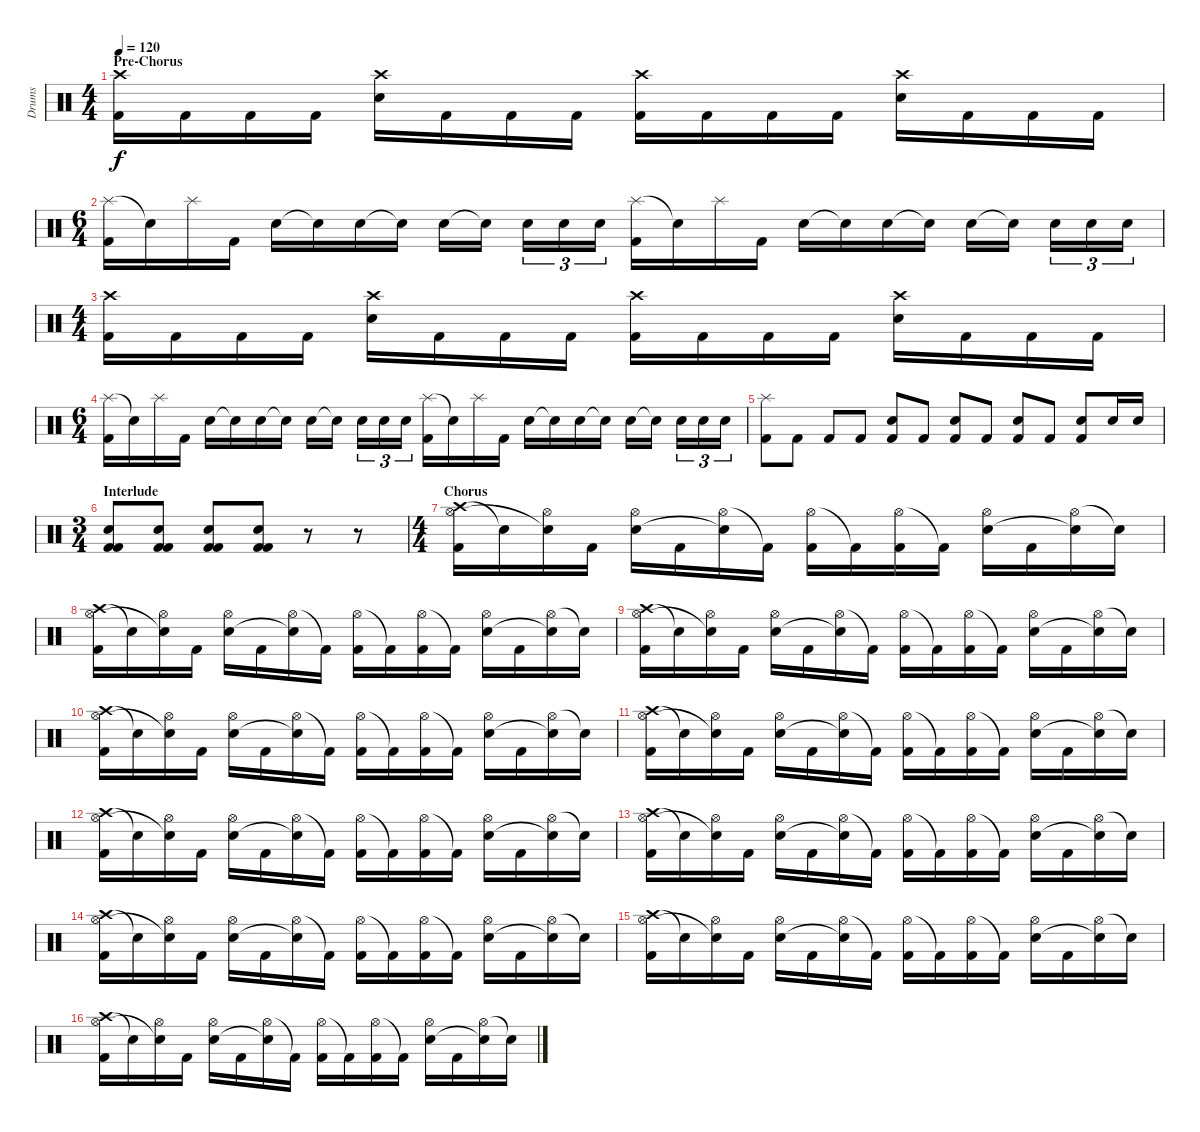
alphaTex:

\track ("Drums" "Drums") {instrument percussion}
\staff {score}
\articulation defaults
\ts (4 4)
\section ("" "Pre-Chorus")
\tempo 120
\clef neutral
\ks c
("Crash high (hit)" "Kick (hit) 2").16{dy f} "Kick (hit) 2".16 "Kick (hit) 2".16 "Kick (hit) 2".16 ("Crash high (hit)" "Electric Snare (hit)").16 "Kick (hit) 2".16 "Kick (hit) 2".16 "Kick (hit) 2".16 ("Crash high (hit)" "Kick (hit) 2").16 "Kick (hit) 2".16 "Kick (hit) 2".16 "Kick (hit) 2".16 ("Crash high (hit)" "Electric Snare (hit)").16 "Kick (hit) 2".16 "Kick (hit) 2".16 "Kick (hit) 2".16 |
\ts (6 4)
("Splash (hit)" "Kick (hit) 2").16 "Snare (hit)"{t}.16 "Splash (hit)".16 "Kick (hit) 2".16 "Electric Snare (hit)".16 "Snare (hit)"{t}.16 "Electric Snare (hit)".16 "Snare (hit)"{t}.16 "Electric Snare (hit)".16 "Snare (hit)"{t}.16 "Electric Snare (hit)".16{tu (3 2)} "Electric Snare (hit)".16{tu (3 2)} "Electric Snare (hit)".16{tu (3 2)} ("Splash (hit)" "Kick (hit) 2").16 "Snare (hit)"{t}.16 "Splash (hit)".16 "Kick (hit) 2".16 "Electric Snare (hit)".16 "Snare (hit)"{t}.16 "Electric Snare (hit)".16 "Snare (hit)"{t}.16 "Electric Snare (hit)".16 "Snare (hit)"{t}.16 "Electric Snare (hit)".16{tu (3 2)} "Electric Snare (hit)".16{tu (3 2)} "Electric Snare (hit)".16{tu (3 2)} |
\ts (4 4)
("Crash high (hit)" "Kick (hit) 2").16 "Kick (hit) 2".16 "Kick (hit) 2".16 "Kick (hit) 2".16 ("Crash high (hit)" "Electric Snare (hit)").16 "Kick (hit) 2".16 "Kick (hit) 2".16 "Kick (hit) 2".16 ("Crash high (hit)" "Kick (hit) 2").16 "Kick (hit) 2".16 "Kick (hit) 2".16 "Kick (hit) 2".16 ("Crash high (hit)" "Electric Snare (hit)").16 "Kick (hit) 2".16 "Kick (hit) 2".16 "Kick (hit) 2".16 |
\ts (6 4)
("Splash (hit)" "Kick (hit) 2").16 "Snare (hit)"{t}.16 "Splash (hit)".16 "Kick (hit) 2".16 "Electric Snare (hit)".16 "Snare (hit)"{t}.16 "Electric Snare (hit)".16 "Snare (hit)"{t}.16 "Electric Snare (hit)".16 "Snare (hit)"{t}.16 "Electric Snare (hit)".16{tu (3 2)} "Electric Snare (hit)".16{tu (3 2)} "Electric Snare (hit)".16{tu (3 2)} ("Splash (hit)" "Kick (hit) 2").16 "Snare (hit)"{t}.16 "Splash (hit)".16 "Kick (hit) 2".16 "Electric Snare (hit)".16 "Snare (hit)"{t}.16 "Electric Snare (hit)".16 "Snare (hit)"{t}.16 "Electric Snare (hit)".16 "Snare (hit)"{t}.16 "Electric Snare (hit)".16{tu (3 2)} "Electric Snare (hit)".16{tu (3 2)} "Electric Snare (hit)".16{tu (3 2)} |
("Splash (hit)" "Kick (hit) 2").8 "Kick (hit) 2".8 "Kick (hit) 2".8 "Kick (hit) 2".8 ("Electric Snare (hit)" "Kick (hit) 2").8 "Kick (hit) 2".8 ("Electric Snare (hit)" "Kick (hit) 2").8 "Kick (hit) 2".8 ("Electric Snare (hit)" "Kick (hit) 2").8 "Kick (hit) 2".8 ("Electric Snare (hit)" "Kick (hit) 2").8 "Electric Snare (hit)".16 "Electric Snare (hit)".16 |
\ts (3 4)
\section ("" "Interlude")
("Electric Snare (hit)" "Kick (hit) 2" "Kick (hit) 2").8 ("Electric Snare (hit)" "Kick (hit) 2" "Kick (hit) 2").8 ("Electric Snare (hit)" "Kick (hit) 2" "Kick (hit) 2").8 ("Electric Snare (hit)" "Kick (hit) 2" "Kick (hit) 2").8 r.8 r.8 |
\ts (4 4)
\section ("" "Chorus")
("Crash high (hit)" "Hi-Hat (open)" "Kick (hit) 2").16 "Snare (hit)"{t}.16 ("Hi-Hat (open)" "Snare (hit)"{t}).16 "Kick (hit) 2".16 ("Hi-Hat (open)" "Electric Snare (hit)").16 "Kick (hit) 2".16 ("Hi-Hat (open)" "Snare (hit)"{t}).16 "Kick (hit) 2"{t}.16 ("Hi-Hat (open)" "Kick (hit) 2").16 "Kick (hit) 2"{t}.16 ("Hi-Hat (open)" "Kick (hit) 2").16 "Kick (hit) 2"{t}.16 ("Hi-Hat (open)" "Electric Snare (hit)").16 "Kick (hit) 2".16 ("Hi-Hat (open)" "Snare (hit)"{t}).16 "Snare (hit)"{t}.16 |
("Crash high (hit)" "Hi-Hat (open)" "Kick (hit) 2").16 "Snare (hit)"{t}.16 ("Hi-Hat (open)" "Snare (hit)"{t}).16 "Kick (hit) 2".16 ("Hi-Hat (open)" "Electric Snare (hit)").16 "Kick (hit) 2".16 ("Hi-Hat (open)" "Snare (hit)"{t}).16 "Kick (hit) 2"{t}.16 ("Hi-Hat (open)" "Kick (hit) 2").16 "Kick (hit) 2"{t}.16 ("Hi-Hat (open)" "Kick (hit) 2").16 "Kick (hit) 2"{t}.16 ("Hi-Hat (open)" "Electric Snare (hit)").16 "Kick (hit) 2".16 ("Hi-Hat (open)" "Snare (hit)"{t}).16 "Snare (hit)"{t}.16 |
("Crash high (hit)" "Hi-Hat (open)" "Kick (hit) 2").16 "Snare (hit)"{t}.16 ("Hi-Hat (open)" "Snare (hit)"{t}).16 "Kick (hit) 2".16 ("Hi-Hat (open)" "Electric Snare (hit)").16 "Kick (hit) 2".16 ("Hi-Hat (open)" "Snare (hit)"{t}).16 "Kick (hit) 2"{t}.16 ("Hi-Hat (open)" "Kick (hit) 2").16 "Kick (hit) 2"{t}.16 ("Hi-Hat (open)" "Kick (hit) 2").16 "Kick (hit) 2"{t}.16 ("Hi-Hat (open)" "Electric Snare (hit)").16 "Kick (hit) 2".16 ("Hi-Hat (open)" "Snare (hit)"{t}).16 "Snare (hit)"{t}.16 |
("Crash high (hit)" "Hi-Hat (open)" "Kick (hit) 2").16 "Snare (hit)"{t}.16 ("Hi-Hat (open)" "Snare (hit)"{t}).16 "Kick (hit) 2".16 ("Hi-Hat (open)" "Electric Snare (hit)").16 "Kick (hit) 2".16 ("Hi-Hat (open)" "Snare (hit)"{t}).16 "Kick (hit) 2"{t}.16 ("Hi-Hat (open)" "Kick (hit) 2").16 "Kick (hit) 2"{t}.16 ("Hi-Hat (open)" "Kick (hit) 2").16 "Kick (hit) 2"{t}.16 ("Hi-Hat (open)" "Electric Snare (hit)").16 "Kick (hit) 2".16 ("Hi-Hat (open)" "Snare (hit)"{t}).16 "Snare (hit)"{t}.16 |
("Crash high (hit)" "Hi-Hat (open)" "Kick (hit) 2").16 "Snare (hit)"{t}.16 ("Hi-Hat (open)" "Snare (hit)"{t}).16 "Kick (hit) 2".16 ("Hi-Hat (open)" "Electric Snare (hit)").16 "Kick (hit) 2".16 ("Hi-Hat (open)" "Snare (hit)"{t}).16 "Kick (hit) 2"{t}.16 ("Hi-Hat (open)" "Kick (hit) 2").16 "Kick (hit) 2"{t}.16 ("Hi-Hat (open)" "Kick (hit) 2").16 "Kick (hit) 2"{t}.16 ("Hi-Hat (open)" "Electric Snare (hit)").16 "Kick (hit) 2".16 ("Hi-Hat (open)" "Snare (hit)"{t}).16 "Snare (hit)"{t}.16 |
("Crash high (hit)" "Hi-Hat (open)" "Kick (hit) 2").16 "Snare (hit)"{t}.16 ("Hi-Hat (open)" "Snare (hit)"{t}).16 "Kick (hit) 2".16 ("Hi-Hat (open)" "Electric Snare (hit)").16 "Kick (hit) 2".16 ("Hi-Hat (open)" "Snare (hit)"{t}).16 "Kick (hit) 2"{t}.16 ("Hi-Hat (open)" "Kick (hit) 2").16 "Kick (hit) 2"{t}.16 ("Hi-Hat (open)" "Kick (hit) 2").16 "Kick (hit) 2"{t}.16 ("Hi-Hat (open)" "Electric Snare (hit)").16 "Kick (hit) 2".16 ("Hi-Hat (open)" "Snare (hit)"{t}).16 "Snare (hit)"{t}.16 |
("Crash high (hit)" "Hi-Hat (open)" "Kick (hit) 2").16 "Snare (hit)"{t}.16 ("Hi-Hat (open)" "Snare (hit)"{t}).16 "Kick (hit) 2".16 ("Hi-Hat (open)" "Electric Snare (hit)").16 "Kick (hit) 2".16 ("Hi-Hat (open)" "Snare (hit)"{t}).16 "Kick (hit) 2"{t}.16 ("Hi-Hat (open)" "Kick (hit) 2").16 "Kick (hit) 2"{t}.16 ("Hi-Hat (open)" "Kick (hit) 2").16 "Kick (hit) 2"{t}.16 ("Hi-Hat (open)" "Electric Snare (hit)").16 "Kick (hit) 2".16 ("Hi-Hat (open)" "Snare (hit)"{t}).16 "Snare (hit)"{t}.16 |
("Crash high (hit)" "Hi-Hat (open)" "Kick (hit) 2").16 "Snare (hit)"{t}.16 ("Hi-Hat (open)" "Snare (hit)"{t}).16 "Kick (hit) 2".16 ("Hi-Hat (open)" "Electric Snare (hit)").16 "Kick (hit) 2".16 ("Hi-Hat (open)" "Snare (hit)"{t}).16 "Kick (hit) 2"{t}.16 ("Hi-Hat (open)" "Kick (hit) 2").16 "Kick (hit) 2"{t}.16 ("Hi-Hat (open)" "Kick (hit) 2").16 "Kick (hit) 2"{t}.16 ("Hi-Hat (open)" "Electric Snare (hit)").16 "Kick (hit) 2".16 ("Hi-Hat (open)" "Snare (hit)"{t}).16 "Snare (hit)"{t}.16 |
("Crash high (hit)" "Hi-Hat (open)" "Kick (hit) 2").16 "Snare (hit)"{t}.16 ("Hi-Hat (open)" "Snare (hit)"{t}).16 "Kick (hit) 2".16 ("Hi-Hat (open)" "Electric Snare (hit)").16 "Kick (hit) 2".16 ("Hi-Hat (open)" "Snare (hit)"{t}).16 "Kick (hit) 2"{t}.16 ("Hi-Hat (open)" "Kick (hit) 2").16 "Kick (hit) 2"{t}.16 ("Hi-Hat (open)" "Kick (hit) 2").16 "Kick (hit) 2"{t}.16 ("Hi-Hat (open)" "Electric Snare (hit)").16 "Kick (hit) 2".16 ("Hi-Hat (open)" "Snare (hit)"{t}).16 "Snare (hit)"{t}.16 |
("Crash high (hit)" "Hi-Hat (open)" "Kick (hit) 2").16 "Snare (hit)"{t}.16 ("Hi-Hat (open)" "Snare (hit)"{t}).16 "Kick (hit) 2".16 ("Hi-Hat (open)" "Electric Snare (hit)").16 "Kick (hit) 2".16 ("Hi-Hat (open)" "Snare (hit)"{t}).16 "Kick (hit) 2"{t}.16 ("Hi-Hat (open)" "Kick (hit) 2").16 "Kick (hit) 2"{t}.16 ("Hi-Hat (open)" "Kick (hit) 2").16 "Kick (hit) 2"{t}.16 ("Hi-Hat (open)" "Electric Snare (hit)").16 "Kick (hit) 2".16 ("Hi-Hat (open)" "Snare (hit)"{t}).16 "Snare (hit)"{t}.16
